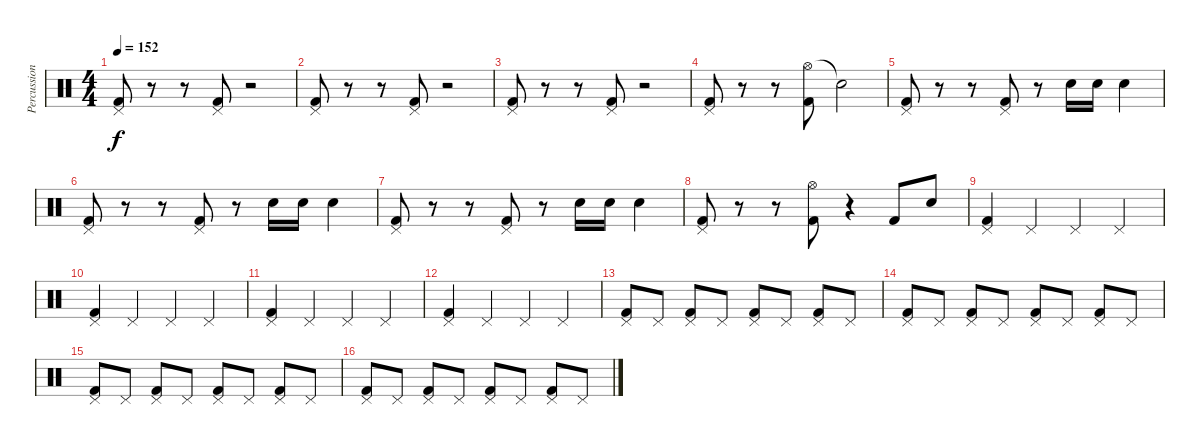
\track ("Percussion" "Percussion") {instrument percussion}
\staff {score}
\articulation defaults
\ts (4 4)
\tempo 152
\clef neutral
\ks c
("Pedal Hi-Hat (hit)" "Kick (hit) 2").8{dy f} r.8 r.8 ("Pedal Hi-Hat (hit)" "Kick (hit) 2").8 r.2 |
("Pedal Hi-Hat (hit)" "Kick (hit) 2").8 r.8 r.8 ("Pedal Hi-Hat (hit)" "Kick (hit) 2").8 r.2 |
("Pedal Hi-Hat (hit)" "Kick (hit) 2").8 r.8 r.8 ("Pedal Hi-Hat (hit)" "Kick (hit) 2").8 r.2 |
("Pedal Hi-Hat (hit)" "Kick (hit) 2").8 r.8 r.8 ("Hi-Hat (open)" "Kick (hit) 2").8 "Snare (hit)"{t}.2 |
("Pedal Hi-Hat (hit)" "Kick (hit) 2").8 r.8 r.8 ("Pedal Hi-Hat (hit)" "Kick (hit) 2").8 r.8 "Snare (hit) 2".16 "Snare (hit) 2".16 "Snare (hit) 2".4 |
("Pedal Hi-Hat (hit)" "Kick (hit) 2").8 r.8 r.8 ("Pedal Hi-Hat (hit)" "Kick (hit) 2").8 r.8 "Snare (hit) 2".16 "Snare (hit) 2".16 "Snare (hit) 2".4 |
("Pedal Hi-Hat (hit)" "Kick (hit) 2").8 r.8 r.8 ("Pedal Hi-Hat (hit)" "Kick (hit) 2").8 r.8 "Snare (hit) 2".16 "Snare (hit) 2".16 "Snare (hit) 2".4 |
("Pedal Hi-Hat (hit)" "Kick (hit) 2").8 r.8 r.8 ("Hi-Hat (open)" "Kick (hit) 2").8 r.4 "Kick (hit) 2".8 "Snare (hit) 2".8 |
("Pedal Hi-Hat (hit)" "Kick (hit) 2").4 "Pedal Hi-Hat (hit)".4 "Pedal Hi-Hat (hit)".4 "Pedal Hi-Hat (hit)".4 |
("Pedal Hi-Hat (hit)" "Kick (hit) 2").4 "Pedal Hi-Hat (hit)".4 "Pedal Hi-Hat (hit)".4 "Pedal Hi-Hat (hit)".4 |
("Pedal Hi-Hat (hit)" "Kick (hit) 2").4 "Pedal Hi-Hat (hit)".4 "Pedal Hi-Hat (hit)".4 "Pedal Hi-Hat (hit)".4 |
("Pedal Hi-Hat (hit)" "Kick (hit) 2").4 "Pedal Hi-Hat (hit)".4 "Pedal Hi-Hat (hit)".4 "Pedal Hi-Hat (hit)".4 |
("Pedal Hi-Hat (hit)" "Kick (hit) 2").8 "Pedal Hi-Hat (hit)".8 ("Pedal Hi-Hat (hit)" "Kick (hit) 2").8 "Pedal Hi-Hat (hit)".8 ("Pedal Hi-Hat (hit)" "Kick (hit) 2").8 "Pedal Hi-Hat (hit)".8 ("Pedal Hi-Hat (hit)" "Kick (hit) 2").8 "Pedal Hi-Hat (hit)".8 |
("Pedal Hi-Hat (hit)" "Kick (hit) 2").8 "Pedal Hi-Hat (hit)".8 ("Pedal Hi-Hat (hit)" "Kick (hit) 2").8 "Pedal Hi-Hat (hit)".8 ("Pedal Hi-Hat (hit)" "Kick (hit) 2").8 "Pedal Hi-Hat (hit)".8 ("Pedal Hi-Hat (hit)" "Kick (hit) 2").8 "Pedal Hi-Hat (hit)".8 |
("Pedal Hi-Hat (hit)" "Kick (hit) 2").8 "Pedal Hi-Hat (hit)".8 ("Pedal Hi-Hat (hit)" "Kick (hit) 2").8 "Pedal Hi-Hat (hit)".8 ("Pedal Hi-Hat (hit)" "Kick (hit) 2").8 "Pedal Hi-Hat (hit)".8 ("Pedal Hi-Hat (hit)" "Kick (hit) 2").8 "Pedal Hi-Hat (hit)".8 |
("Pedal Hi-Hat (hit)" "Kick (hit) 2").8 "Pedal Hi-Hat (hit)".8 ("Pedal Hi-Hat (hit)" "Kick (hit) 2").8 "Pedal Hi-Hat (hit)".8 ("Pedal Hi-Hat (hit)" "Kick (hit) 2").8 "Pedal Hi-Hat (hit)".8 ("Pedal Hi-Hat (hit)" "Kick (hit) 2").8 "Pedal Hi-Hat (hit)".8
